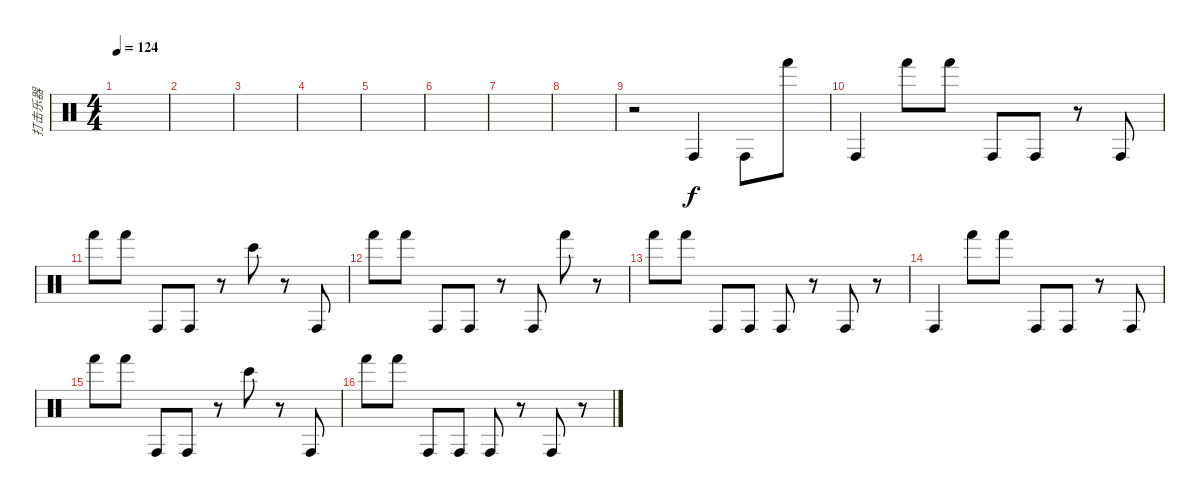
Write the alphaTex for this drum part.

\track ("打击乐器" "打击乐器") {instrument percussion}
\staff {score}
\articulation defaults
\ts (4 4)
\tempo 124
\clef neutral
\ks c
|
|
|
|
|
|
|
|
r.2 "Conga high (hit)".4 "Conga high (hit)".8 "Hand (hit)".8 |
"Conga high (hit)".4 "Hand (hit)".8 "Hand (hit)".8 "Conga high (hit)".8 "Conga high (hit)".8 r.8 "Conga high (hit)".8 |
"Hand (hit)".8 "Hand (hit)".8 "Conga high (hit)".8 "Conga high (hit)".8 r.8 "Bongo High (hit)".8 r.8 "Conga high (hit)".8 |
"Hand (hit)".8 "Hand (hit)".8 "Conga high (hit)".8 "Conga high (hit)".8 r.8 "Conga high (hit)".8 "Hand (hit)".8 r.8 |
"Hand (hit)".8 "Hand (hit)".8 "Conga high (hit)".8 "Conga high (hit)".8 "Conga high (hit)".8 r.8 "Conga high (hit)".8 r.8 |
"Conga high (hit)".4 "Hand (hit)".8 "Hand (hit)".8 "Conga high (hit)".8 "Conga high (hit)".8 r.8 "Conga high (hit)".8 |
"Hand (hit)".8 "Hand (hit)".8 "Conga high (hit)".8 "Conga high (hit)".8 r.8 "Bongo High (hit)".8 r.8 "Conga high (hit)".8 |
"Hand (hit)".8 "Hand (hit)".8 "Conga high (hit)".8 "Conga high (hit)".8 "Conga high (hit)".8 r.8 "Conga high (hit)".8 r.8
